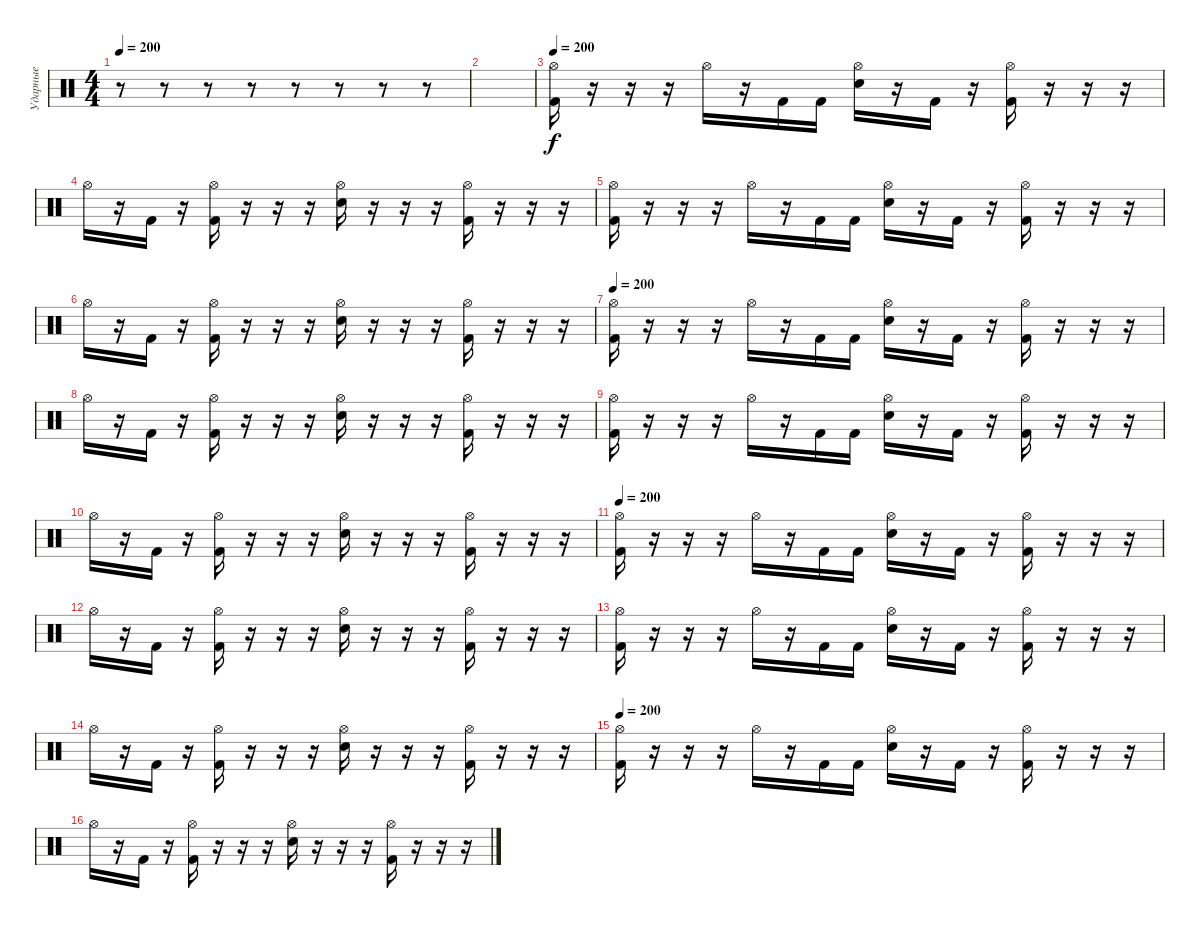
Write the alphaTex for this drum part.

\track ("Ударные" "Ударные") {instrument percussion}
\staff {score}
\articulation defaults
\ts (4 4)
\tempo 200
\clef neutral
\ks c
r.8{dy f} r.8 r.8 r.8 r.8 r.8 r.8 r.8 |
|
\tempo 200
("Kick (hit) 2" "Hi-Hat (open)").16 r.16 r.16 r.16 "Hi-Hat (open)".16 r.16 "Kick (hit) 2".16 "Kick (hit) 2".16 ("Electric Snare (hit)" "Hi-Hat (open)").16 r.16 "Kick (hit) 2".16 r.16 ("Kick (hit) 2" "Hi-Hat (open)").16 r.16 r.16 r.16 |
"Hi-Hat (open)".16 r.16 "Kick (hit) 2".16 r.16 ("Kick (hit) 2" "Hi-Hat (open)").16 r.16 r.16 r.16 ("Electric Snare (hit)" "Hi-Hat (open)").16 r.16 r.16 r.16 ("Kick (hit) 2" "Hi-Hat (open)").16 r.16 r.16 r.16 |
("Kick (hit) 2" "Hi-Hat (open)").16 r.16 r.16 r.16 "Hi-Hat (open)".16 r.16 "Kick (hit) 2".16 "Kick (hit) 2".16 ("Electric Snare (hit)" "Hi-Hat (open)").16 r.16 "Kick (hit) 2".16 r.16 ("Kick (hit) 2" "Hi-Hat (open)").16 r.16 r.16 r.16 |
"Hi-Hat (open)".16 r.16 "Kick (hit) 2".16 r.16 ("Kick (hit) 2" "Hi-Hat (open)").16 r.16 r.16 r.16 ("Electric Snare (hit)" "Hi-Hat (open)").16 r.16 r.16 r.16 ("Kick (hit) 2" "Hi-Hat (open)").16 r.16 r.16 r.16 |
\tempo 200
("Kick (hit) 2" "Hi-Hat (open)").16 r.16 r.16 r.16 "Hi-Hat (open)".16 r.16 "Kick (hit) 2".16 "Kick (hit) 2".16 ("Electric Snare (hit)" "Hi-Hat (open)").16 r.16 "Kick (hit) 2".16 r.16 ("Kick (hit) 2" "Hi-Hat (open)").16 r.16 r.16 r.16 |
"Hi-Hat (open)".16 r.16 "Kick (hit) 2".16 r.16 ("Kick (hit) 2" "Hi-Hat (open)").16 r.16 r.16 r.16 ("Electric Snare (hit)" "Hi-Hat (open)").16 r.16 r.16 r.16 ("Kick (hit) 2" "Hi-Hat (open)").16 r.16 r.16 r.16 |
("Kick (hit) 2" "Hi-Hat (open)").16 r.16 r.16 r.16 "Hi-Hat (open)".16 r.16 "Kick (hit) 2".16 "Kick (hit) 2".16 ("Electric Snare (hit)" "Hi-Hat (open)").16 r.16 "Kick (hit) 2".16 r.16 ("Kick (hit) 2" "Hi-Hat (open)").16 r.16 r.16 r.16 |
"Hi-Hat (open)".16 r.16 "Kick (hit) 2".16 r.16 ("Kick (hit) 2" "Hi-Hat (open)").16 r.16 r.16 r.16 ("Electric Snare (hit)" "Hi-Hat (open)").16 r.16 r.16 r.16 ("Kick (hit) 2" "Hi-Hat (open)").16 r.16 r.16 r.16 |
\tempo 200
("Kick (hit) 2" "Hi-Hat (open)").16 r.16 r.16 r.16 "Hi-Hat (open)".16 r.16 "Kick (hit) 2".16 "Kick (hit) 2".16 ("Electric Snare (hit)" "Hi-Hat (open)").16 r.16 "Kick (hit) 2".16 r.16 ("Kick (hit) 2" "Hi-Hat (open)").16 r.16 r.16 r.16 |
"Hi-Hat (open)".16 r.16 "Kick (hit) 2".16 r.16 ("Kick (hit) 2" "Hi-Hat (open)").16 r.16 r.16 r.16 ("Electric Snare (hit)" "Hi-Hat (open)").16 r.16 r.16 r.16 ("Kick (hit) 2" "Hi-Hat (open)").16 r.16 r.16 r.16 |
("Kick (hit) 2" "Hi-Hat (open)").16 r.16 r.16 r.16 "Hi-Hat (open)".16 r.16 "Kick (hit) 2".16 "Kick (hit) 2".16 ("Electric Snare (hit)" "Hi-Hat (open)").16 r.16 "Kick (hit) 2".16 r.16 ("Kick (hit) 2" "Hi-Hat (open)").16 r.16 r.16 r.16 |
"Hi-Hat (open)".16 r.16 "Kick (hit) 2".16 r.16 ("Kick (hit) 2" "Hi-Hat (open)").16 r.16 r.16 r.16 ("Electric Snare (hit)" "Hi-Hat (open)").16 r.16 r.16 r.16 ("Kick (hit) 2" "Hi-Hat (open)").16 r.16 r.16 r.16 |
\tempo 200
("Kick (hit) 2" "Hi-Hat (open)").16 r.16 r.16 r.16 "Hi-Hat (open)".16 r.16 "Kick (hit) 2".16 "Kick (hit) 2".16 ("Electric Snare (hit)" "Hi-Hat (open)").16 r.16 "Kick (hit) 2".16 r.16 ("Kick (hit) 2" "Hi-Hat (open)").16 r.16 r.16 r.16 |
"Hi-Hat (open)".16 r.16 "Kick (hit) 2".16 r.16 ("Kick (hit) 2" "Hi-Hat (open)").16 r.16 r.16 r.16 ("Electric Snare (hit)" "Hi-Hat (open)").16 r.16 r.16 r.16 ("Kick (hit) 2" "Hi-Hat (open)").16 r.16 r.16 r.16
